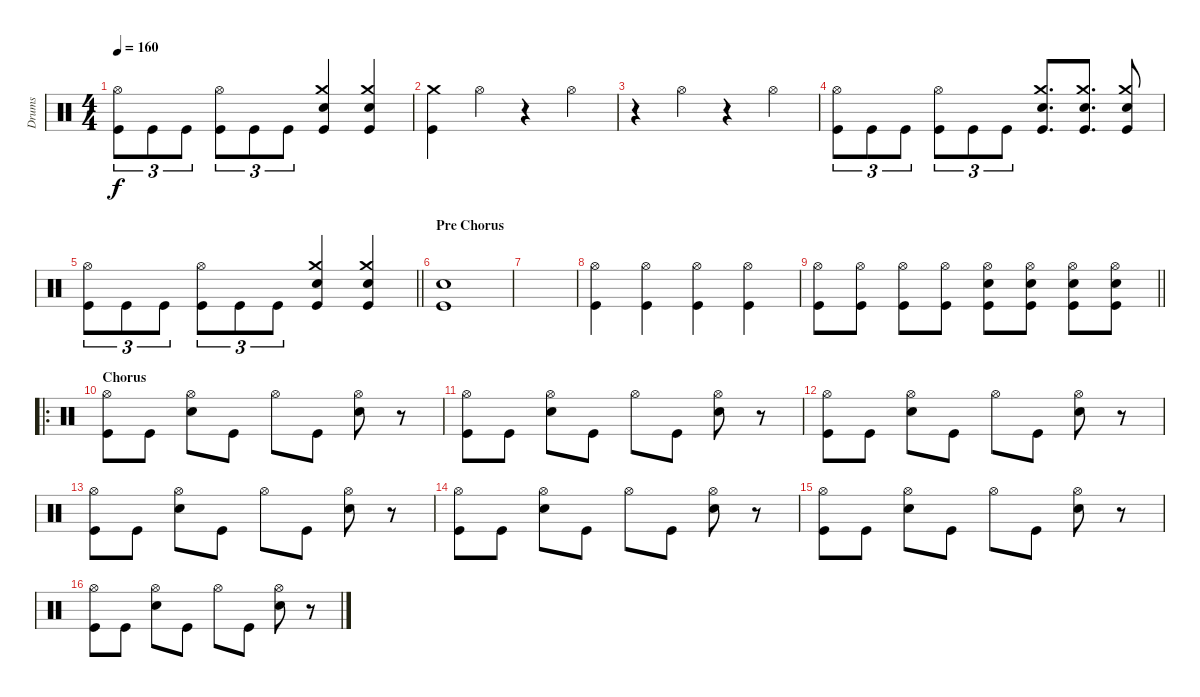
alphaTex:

\track ("Drums" "Drums") {instrument percussion}
\staff {score}
\articulation defaults
\ts (4 4)
\tempo 160
\clef neutral
\ks c
("Hi-Hat (open)" "Kick (hit)").8{tu (3 2) dy f} "Kick (hit)".8{tu (3 2)} "Kick (hit)".8{tu (3 2)} ("Hi-Hat (open)" "Kick (hit)").8{tu (3 2)} "Kick (hit)".8{tu (3 2)} "Kick (hit)".8{tu (3 2)} ("Crash medium (hit)" "Snare (hit) 2" "Kick (hit)").4 ("Crash medium (hit)" "Snare (hit) 2" "Kick (hit)").4 |
("Crash medium (hit)" "Kick (hit)").4 "Hi-Hat (open)".4 r.4 "Hi-Hat (open)".4 |
r.4 "Hi-Hat (open)".4 r.4 "Hi-Hat (open)".4 |
("Hi-Hat (open)" "Kick (hit)").8{tu (3 2)} "Kick (hit)".8{tu (3 2)} "Kick (hit)".8{tu (3 2)} ("Hi-Hat (open)" "Kick (hit)").8{tu (3 2)} "Kick (hit)".8{tu (3 2)} "Kick (hit)".8{tu (3 2)} ("Crash medium (hit)" "Snare (hit) 2" "Kick (hit)").8{d} ("Crash medium (hit)" "Snare (hit) 2" "Kick (hit)").8{d} ("Crash medium (hit)" "Snare (hit) 2" "Kick (hit)").8 |
\barLineRight lightlight
("Hi-Hat (open)" "Kick (hit)").8{tu (3 2)} "Kick (hit)".8{tu (3 2)} "Kick (hit)".8{tu (3 2)} ("Hi-Hat (open)" "Kick (hit)").8{tu (3 2)} "Kick (hit)".8{tu (3 2)} "Kick (hit)".8{tu (3 2)} ("Crash medium (hit)" "Snare (hit) 2" "Kick (hit)").4 ("Crash medium (hit)" "Snare (hit) 2" "Kick (hit)").4 |
\section ("" "Pre Chorus")
("Snare (hit) 2" "Kick (hit)").1 |
|
("Hi-Hat (open)" "Kick (hit)").4 ("Hi-Hat (open)" "Kick (hit)").4 ("Hi-Hat (open)" "Kick (hit)").4 ("Hi-Hat (open)" "Kick (hit)").4 |
\barLineRight lightlight
("Hi-Hat (open)" "Kick (hit)").8 ("Hi-Hat (open)" "Kick (hit)").8 ("Hi-Hat (open)" "Kick (hit)").8 ("Hi-Hat (open)" "Kick (hit)").8 ("Hi-Hat (open)" "Snare (hit) 2" "Kick (hit)").8 ("Hi-Hat (open)" "Snare (hit) 2" "Kick (hit)").8 ("Hi-Hat (open)" "Snare (hit) 2" "Kick (hit)").8 ("Hi-Hat (open)" "Snare (hit) 2" "Kick (hit)").8 |
\ro
\section ("" "Chorus")
("Hi-Hat (open)" "Kick (hit)").8 "Kick (hit)".8 ("Hi-Hat (open)" "Snare (hit) 2").8 "Kick (hit)".8 "Hi-Hat (open)".8 "Kick (hit)".8 ("Hi-Hat (open)" "Snare (hit) 2").8 r.8 |
("Hi-Hat (open)" "Kick (hit)").8 "Kick (hit)".8 ("Hi-Hat (open)" "Snare (hit) 2").8 "Kick (hit)".8 "Hi-Hat (open)".8 "Kick (hit)".8 ("Hi-Hat (open)" "Snare (hit) 2").8 r.8 |
("Hi-Hat (open)" "Kick (hit)").8 "Kick (hit)".8 ("Hi-Hat (open)" "Snare (hit) 2").8 "Kick (hit)".8 "Hi-Hat (open)".8 "Kick (hit)".8 ("Hi-Hat (open)" "Snare (hit) 2").8 r.8 |
("Hi-Hat (open)" "Kick (hit)").8 "Kick (hit)".8 ("Hi-Hat (open)" "Snare (hit) 2").8 "Kick (hit)".8 "Hi-Hat (open)".8 "Kick (hit)".8 ("Hi-Hat (open)" "Snare (hit) 2").8 r.8 |
("Hi-Hat (open)" "Kick (hit)").8 "Kick (hit)".8 ("Hi-Hat (open)" "Snare (hit) 2").8 "Kick (hit)".8 "Hi-Hat (open)".8 "Kick (hit)".8 ("Hi-Hat (open)" "Snare (hit) 2").8 r.8 |
("Hi-Hat (open)" "Kick (hit)").8 "Kick (hit)".8 ("Hi-Hat (open)" "Snare (hit) 2").8 "Kick (hit)".8 "Hi-Hat (open)".8 "Kick (hit)".8 ("Hi-Hat (open)" "Snare (hit) 2").8 r.8 |
("Hi-Hat (open)" "Kick (hit)").8 "Kick (hit)".8 ("Hi-Hat (open)" "Snare (hit) 2").8 "Kick (hit)".8 "Hi-Hat (open)".8 "Kick (hit)".8 ("Hi-Hat (open)" "Snare (hit) 2").8 r.8
